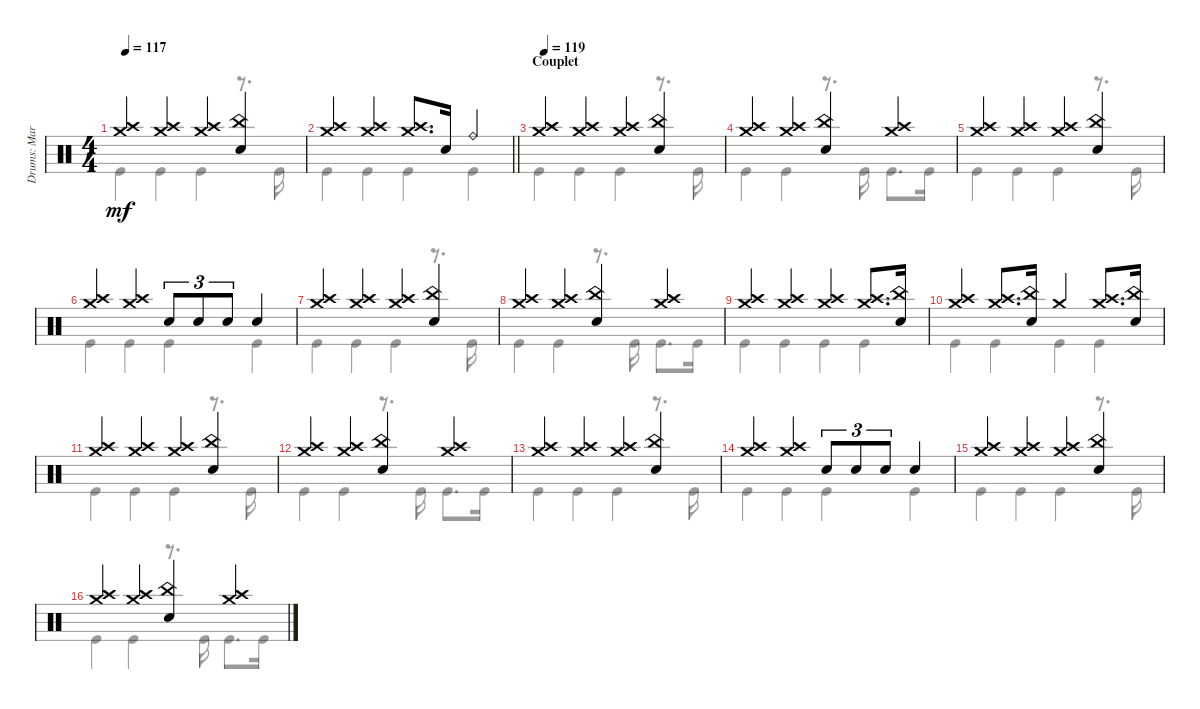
\track ("Drums: Mario Duplantier" "Drums: Mar") {instrument percussion}
\staff {score}
\articulation defaults
\voice
\ts (4 4)
\tempo 117
\clef neutral
\ks c
("Crash medium (hit)" "Crash high (hit)").4{dy mf} ("Crash medium (hit)" "Crash high (hit)").4 ("Crash medium (hit)" "Crash high (hit)").4 ("Snare (hit) 2" "China (hit)").4 |
\barLineRight lightlight
("Crash medium (hit)" "Crash high (hit)").4 ("Crash medium (hit)" "Crash high (hit)").4 ("Crash medium (hit)" "Crash high (hit)").8{d} "Snare (hit) 2".16 "Ride (bell)".4 |
\section ("" "Couplet")
\tempo 119
("Crash medium (hit)" "Crash high (hit)").4 ("Crash medium (hit)" "Crash high (hit)").4 ("Crash medium (hit)" "Crash high (hit)").4 ("Snare (hit) 2" "China (hit)").4 |
("Crash medium (hit)" "Crash high (hit)").4 ("Crash medium (hit)" "Crash high (hit)").4 ("Snare (hit) 2" "China (hit)").4 ("Crash medium (hit)" "Crash high (hit)").4 |
("Crash medium (hit)" "Crash high (hit)").4 ("Crash medium (hit)" "Crash high (hit)").4 ("Crash medium (hit)" "Crash high (hit)").4 ("Snare (hit) 2" "China (hit)").4 |
("Crash medium (hit)" "Crash high (hit)").4 ("Crash medium (hit)" "Crash high (hit)").4 "Snare (hit) 2".8{tu (3 2)} "Snare (hit) 2".8{tu (3 2)} "Snare (hit) 2".8{tu (3 2)} "Snare (hit) 2".4 |
("Crash medium (hit)" "Crash high (hit)").4 ("Crash medium (hit)" "Crash high (hit)").4 ("Crash medium (hit)" "Crash high (hit)").4 ("Snare (hit) 2" "China (hit)").4 |
("Crash medium (hit)" "Crash high (hit)").4 ("Crash medium (hit)" "Crash high (hit)").4 ("Snare (hit) 2" "China (hit)").4 ("Crash medium (hit)" "Crash high (hit)").4 |
("Crash medium (hit)" "Crash high (hit)").4 ("Crash medium (hit)" "Crash high (hit)").4 ("Crash medium (hit)" "Crash high (hit)").4 ("Crash medium (hit)" "Crash high (hit)").8{d} ("Snare (hit) 2" "China (hit)").16 |
("Crash medium (hit)" "Crash high (hit)").4 ("Crash medium (hit)" "Crash high (hit)").8{d} ("Snare (hit) 2" "China (hit)").16 "Crash medium (hit)".4 ("Crash medium (hit)" "Crash high (hit)").8{d} ("Snare (hit) 2" "China (hit)").16 |
("Crash medium (hit)" "Crash high (hit)").4 ("Crash medium (hit)" "Crash high (hit)").4 ("Crash medium (hit)" "Crash high (hit)").4 ("Snare (hit) 2" "China (hit)").4 |
("Crash medium (hit)" "Crash high (hit)").4 ("Crash medium (hit)" "Crash high (hit)").4 ("Snare (hit) 2" "China (hit)").4 ("Crash medium (hit)" "Crash high (hit)").4 |
("Crash medium (hit)" "Crash high (hit)").4 ("Crash medium (hit)" "Crash high (hit)").4 ("Crash medium (hit)" "Crash high (hit)").4 ("Snare (hit) 2" "China (hit)").4 |
("Crash medium (hit)" "Crash high (hit)").4 ("Crash medium (hit)" "Crash high (hit)").4 "Snare (hit) 2".8{tu (3 2)} "Snare (hit) 2".8{tu (3 2)} "Snare (hit) 2".8{tu (3 2)} "Snare (hit) 2".4 |
("Crash medium (hit)" "Crash high (hit)").4 ("Crash medium (hit)" "Crash high (hit)").4 ("Crash medium (hit)" "Crash high (hit)").4 ("Snare (hit) 2" "China (hit)").4 |
("Crash medium (hit)" "Crash high (hit)").4 ("Crash medium (hit)" "Crash high (hit)").4 ("Snare (hit) 2" "China (hit)").4 ("Crash medium (hit)" "Crash high (hit)").4
\voice
\clef neutral
\ottava regular
\simile none
\ks c "Kick (hit)".4{dy mf} "Kick (hit)".4 "Kick (hit)".4
r.8{d} "Kick (hit)".16 |
\barLineRight lightlight "Kick (hit)".4 "Kick (hit)".4 "Kick (hit)".4 "Kick (hit)".4
|
"Kick (hit)".4 "Kick (hit)".4 "Kick (hit)".4 r.8{d} "Kick (hit)".16 |
"Kick (hit)".4 "Kick (hit)".4 r.8{d} "Kick (hit)".16 "Kick (hit)".8{d} "Kick (hit)".16 |
"Kick (hit)".4 "Kick (hit)".4 "Kick (hit)".4 r.8{d} "Kick (hit)".16 |
"Kick (hit)".4 "Kick (hit)".4 "Kick (hit)".4 "Kick (hit)".4 |
"Kick (hit)".4 "Kick (hit)".4 "Kick (hit)".4 r.8{d} "Kick (hit)".16 |
"Kick (hit)".4 "Kick (hit)".4 r.8{d} "Kick (hit)".16 "Kick (hit)".8{d} "Kick (hit)".16 |
"Kick (hit)".4 "Kick (hit)".4 "Kick (hit)".4 "Kick (hit)".4 |
"Kick (hit)".4 "Kick (hit)".4 "Kick (hit)".4 "Kick (hit)".4 |
"Kick (hit)".4 "Kick (hit)".4 "Kick (hit)".4 r.8{d} "Kick (hit)".16 |
"Kick (hit)".4 "Kick (hit)".4 r.8{d} "Kick (hit)".16 "Kick (hit)".8{d} "Kick (hit)".16 |
"Kick (hit)".4 "Kick (hit)".4 "Kick (hit)".4 r.8{d} "Kick (hit)".16 |
"Kick (hit)".4 "Kick (hit)".4 "Kick (hit)".4 "Kick (hit)".4 |
"Kick (hit)".4 "Kick (hit)".4 "Kick (hit)".4 r.8{d} "Kick (hit)".16 |
"Kick (hit)".4 "Kick (hit)".4 r.8{d} "Kick (hit)".16 "Kick (hit)".8{d} "Kick (hit)".16
